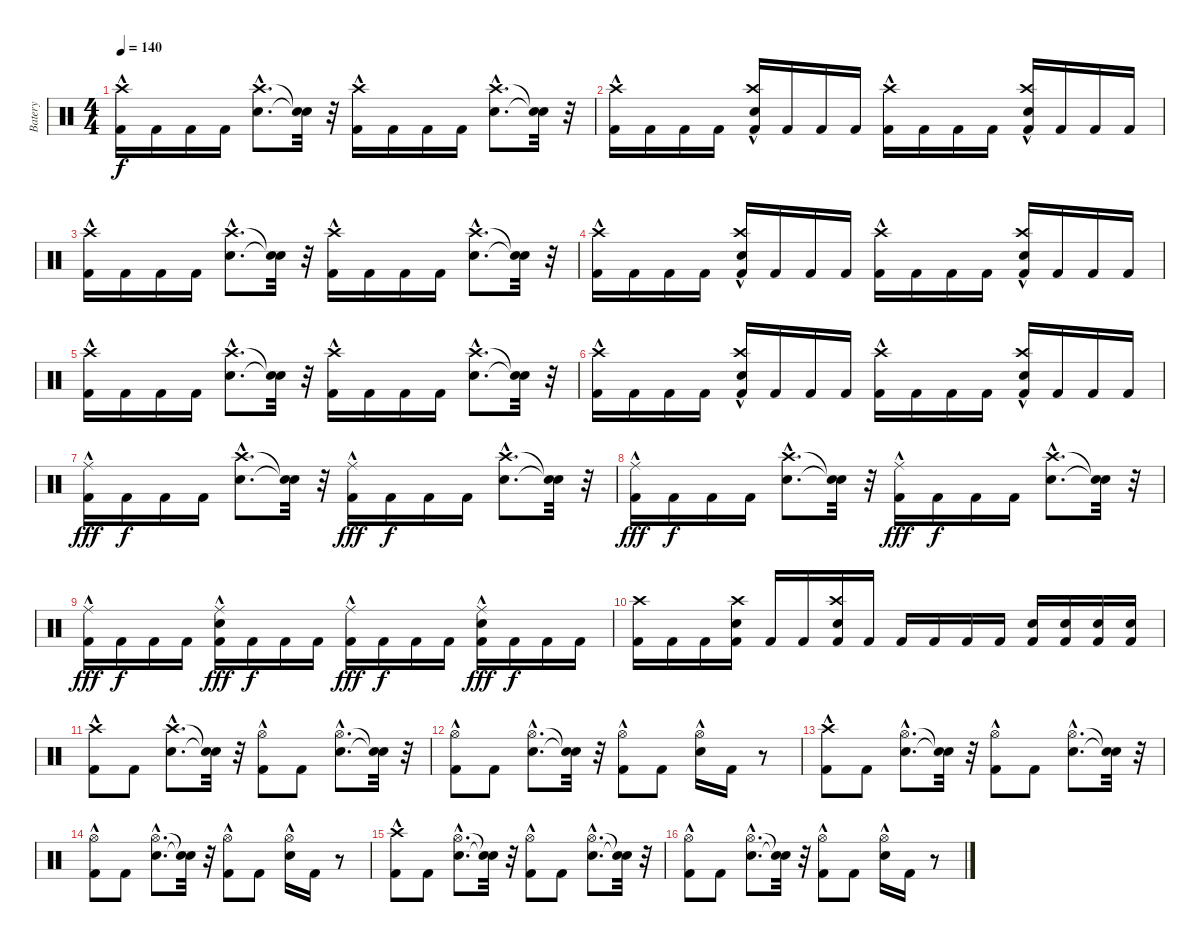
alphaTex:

\track ("Batery" "Batery") {instrument percussion}
\staff {score}
\articulation defaults
\ts (4 4)
\tempo 140
\clef neutral
\ks c
("Kick (hit) 2" "Crash high (hit)"{hac}).16{dy f} "Kick (hit) 2".16 "Kick (hit) 2".16 "Kick (hit) 2".16 ("Snare (hit) 2"{hac} "Crash high (hit)"{hac}).8{d} ("Snare (hit)"{t} "Snare (hit)"{t}).32 r.32 ("Kick (hit) 2" "Crash high (hit)"{hac}).16 "Kick (hit) 2".16 "Kick (hit) 2".16 "Kick (hit) 2".16 ("Snare (hit) 2"{hac} "Crash high (hit)"{hac}).8{d} ("Snare (hit)"{t} "Snare (hit)"{t}).32 r.32 |
("Kick (hit) 2" "Crash high (hit)"{hac}).16 "Kick (hit) 2".16 "Kick (hit) 2".16 "Kick (hit) 2".16 ("Kick (hit) 2" "Crash high (hit)"{hac} "Snare (hit) 2"{hac}).16 "Kick (hit) 2".16 "Kick (hit) 2".16 "Kick (hit) 2".16 ("Kick (hit) 2" "Crash high (hit)"{hac}).16 "Kick (hit) 2".16 "Kick (hit) 2".16 "Kick (hit) 2".16 ("Kick (hit) 2" "Crash high (hit)"{hac} "Snare (hit) 2"{hac}).16 "Kick (hit) 2".16 "Kick (hit) 2".16 "Kick (hit) 2".16 |
("Kick (hit) 2" "Crash high (hit)"{hac}).16 "Kick (hit) 2".16 "Kick (hit) 2".16 "Kick (hit) 2".16 ("Snare (hit) 2"{hac} "Crash high (hit)"{hac}).8{d} ("Snare (hit)"{t} "Snare (hit)"{t}).32 r.32 ("Kick (hit) 2" "Crash high (hit)"{hac}).16 "Kick (hit) 2".16 "Kick (hit) 2".16 "Kick (hit) 2".16 ("Snare (hit) 2"{hac} "Crash high (hit)"{hac}).8{d} ("Snare (hit)"{t} "Snare (hit)"{t}).32 r.32 |
("Kick (hit) 2" "Crash high (hit)"{hac}).16 "Kick (hit) 2".16 "Kick (hit) 2".16 "Kick (hit) 2".16 ("Kick (hit) 2" "Crash high (hit)"{hac} "Snare (hit) 2"{hac}).16 "Kick (hit) 2".16 "Kick (hit) 2".16 "Kick (hit) 2".16 ("Kick (hit) 2" "Crash high (hit)"{hac}).16 "Kick (hit) 2".16 "Kick (hit) 2".16 "Kick (hit) 2".16 ("Kick (hit) 2" "Crash high (hit)"{hac} "Snare (hit) 2"{hac}).16 "Kick (hit) 2".16 "Kick (hit) 2".16 "Kick (hit) 2".16 |
("Kick (hit) 2" "Crash high (hit)"{hac}).16 "Kick (hit) 2".16 "Kick (hit) 2".16 "Kick (hit) 2".16 ("Snare (hit) 2"{hac} "Crash high (hit)"{hac}).8{d} ("Snare (hit)"{t} "Snare (hit)"{t}).32 r.32 ("Kick (hit) 2" "Crash high (hit)"{hac}).16 "Kick (hit) 2".16 "Kick (hit) 2".16 "Kick (hit) 2".16 ("Snare (hit) 2"{hac} "Crash high (hit)"{hac}).8{d} ("Snare (hit)"{t} "Snare (hit)"{t}).32 r.32 |
("Kick (hit) 2" "Crash high (hit)"{hac}).16 "Kick (hit) 2".16 "Kick (hit) 2".16 "Kick (hit) 2".16 ("Kick (hit) 2" "Crash high (hit)"{hac} "Snare (hit) 2"{hac}).16 "Kick (hit) 2".16 "Kick (hit) 2".16 "Kick (hit) 2".16 ("Kick (hit) 2" "Crash high (hit)"{hac}).16 "Kick (hit) 2".16 "Kick (hit) 2".16 "Kick (hit) 2".16 ("Kick (hit) 2" "Crash high (hit)"{hac} "Snare (hit) 2"{hac}).16 "Kick (hit) 2".16 "Kick (hit) 2".16 "Kick (hit) 2".16 |
("Kick (hit) 2" "Ride (middle)"{hac}).16{dy fff} "Kick (hit) 2".16{dy f} "Kick (hit) 2".16 "Kick (hit) 2".16 ("Snare (hit) 2"{hac} "Crash high (hit)"{hac}).8{d} ("Snare (hit)"{t} "Snare (hit)"{t}).32 r.32 ("Kick (hit) 2" "Ride (middle)"{hac}).16{dy fff} "Kick (hit) 2".16{dy f} "Kick (hit) 2".16 "Kick (hit) 2".16 ("Snare (hit) 2"{hac} "Crash high (hit)"{hac}).8{d} ("Snare (hit)"{t} "Snare (hit)"{t}).32 r.32 |
("Kick (hit) 2" "Ride (middle)"{hac}).16{dy fff} "Kick (hit) 2".16{dy f} "Kick (hit) 2".16 "Kick (hit) 2".16 ("Snare (hit) 2"{hac} "Crash high (hit)"{hac}).8{d} ("Snare (hit)"{t} "Snare (hit)"{t}).32 r.32 ("Kick (hit) 2" "Ride (middle)"{hac}).16{dy fff} "Kick (hit) 2".16{dy f} "Kick (hit) 2".16 "Kick (hit) 2".16 ("Snare (hit) 2"{hac} "Crash high (hit)"{hac}).8{d} ("Snare (hit)"{t} "Snare (hit)"{t}).32 r.32 |
("Kick (hit) 2" "Ride (middle)"{hac}).16{dy fff} "Kick (hit) 2".16{dy f} "Kick (hit) 2".16 "Kick (hit) 2".16 ("Kick (hit) 2" "Ride (middle)"{hac} "Snare (hit) 2"{hac}).16{dy fff} "Kick (hit) 2".16{dy f} "Kick (hit) 2".16 "Kick (hit) 2".16 ("Kick (hit) 2" "Ride (middle)"{hac}).16{dy fff} "Kick (hit) 2".16{dy f} "Kick (hit) 2".16 "Kick (hit) 2".16 ("Kick (hit) 2" "Ride (middle)"{hac} "Snare (hit) 2"{hac}).16{dy fff} "Kick (hit) 2".16{dy f} "Kick (hit) 2".16 "Kick (hit) 2".16 |
("Crash high (hit)" "Kick (hit) 2").16 "Kick (hit) 2".16 "Kick (hit) 2".16 ("Crash high (hit)" "Snare (hit) 2" "Kick (hit) 2").16 "Kick (hit) 2".16 "Kick (hit) 2".16 ("Crash high (hit)" "Snare (hit) 2" "Kick (hit) 2").16 "Kick (hit) 2".16 "Kick (hit) 2".16 "Kick (hit) 2".16 "Kick (hit) 2".16 "Kick (hit) 2".16 ("Snare (hit) 2" "Kick (hit) 2").16 ("Snare (hit) 2" "Kick (hit) 2").16 ("Snare (hit) 2" "Kick (hit) 2").16 ("Snare (hit) 2" "Kick (hit) 2").16 |
("Crash high (hit)"{hac} "Kick (hit) 2").8 "Kick (hit) 2".8 ("Crash high (hit)"{hac} "Snare (hit) 2"{hac}).8{d} ("Snare (hit)"{t} "Snare (hit)"{t}).32 r.32 ("Hi-Hat (open)"{hac} "Kick (hit) 2").8 "Kick (hit) 2".8 ("Hi-Hat (open)"{hac} "Snare (hit) 2"{hac}).8{d} ("Snare (hit)"{t} "Snare (hit)"{t}).32 r.32 |
("Hi-Hat (open)"{hac} "Kick (hit) 2").8 "Kick (hit) 2".8 ("Hi-Hat (open)"{hac} "Snare (hit) 2"{hac}).8{d} ("Snare (hit)"{t} "Snare (hit)"{t}).32 r.32 ("Hi-Hat (open)"{hac} "Kick (hit) 2").8 "Kick (hit) 2".8 ("Hi-Hat (open)"{hac} "Snare (hit) 2"{hac}).16 "Kick (hit) 2".16 r.8 |
("Crash high (hit)"{hac} "Kick (hit) 2").8 "Kick (hit) 2".8 ("Hi-Hat (open)"{hac} "Snare (hit) 2"{hac}).8{d} ("Snare (hit)"{t} "Snare (hit)"{t}).32 r.32 ("Hi-Hat (open)"{hac} "Kick (hit) 2").8 "Kick (hit) 2".8 ("Hi-Hat (open)"{hac} "Snare (hit) 2"{hac}).8{d} ("Snare (hit)"{t} "Snare (hit)"{t}).32 r.32 |
("Hi-Hat (open)"{hac} "Kick (hit) 2").8 "Kick (hit) 2".8 ("Hi-Hat (open)"{hac} "Snare (hit) 2"{hac}).8{d} ("Snare (hit)"{t} "Snare (hit)"{t}).32 r.32 ("Hi-Hat (open)"{hac} "Kick (hit) 2").8 "Kick (hit) 2".8 ("Hi-Hat (open)"{hac} "Snare (hit) 2"{hac}).16 "Kick (hit) 2".16 r.8 |
("Crash high (hit)"{hac} "Kick (hit) 2").8 "Kick (hit) 2".8 ("Hi-Hat (open)"{hac} "Snare (hit) 2"{hac}).8{d} ("Snare (hit)"{t} "Snare (hit)"{t}).32 r.32 ("Hi-Hat (open)"{hac} "Kick (hit) 2").8 "Kick (hit) 2".8 ("Hi-Hat (open)"{hac} "Snare (hit) 2"{hac}).8{d} ("Snare (hit)"{t} "Snare (hit)"{t}).32 r.32 |
("Hi-Hat (open)"{hac} "Kick (hit) 2").8 "Kick (hit) 2".8 ("Hi-Hat (open)"{hac} "Snare (hit) 2"{hac}).8{d} ("Snare (hit)"{t} "Snare (hit)"{t}).32 r.32 ("Hi-Hat (open)"{hac} "Kick (hit) 2").8 "Kick (hit) 2".8 ("Hi-Hat (open)"{hac} "Snare (hit) 2"{hac}).16 "Kick (hit) 2".16 r.8
